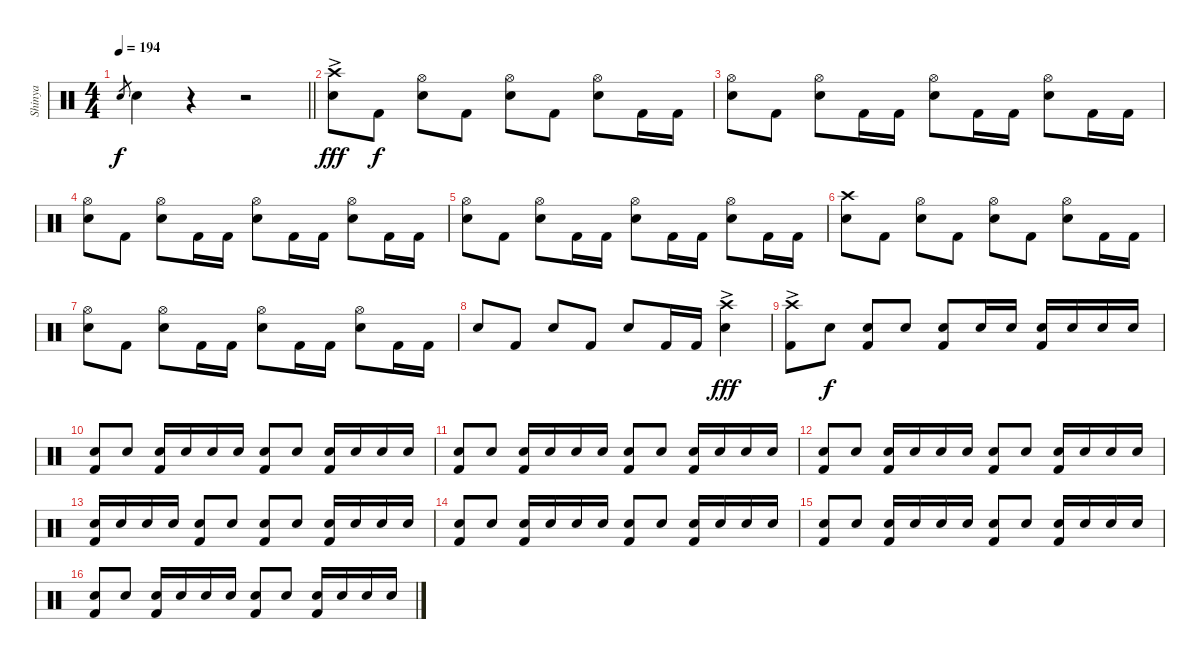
\track ("Shinya" "Shinya") {instrument percussion}
\staff {score}
\articulation defaults
\ts (4 4)
\tempo 194
\clef neutral
\barLineRight lightlight
\ks c "Snare (hit) 2".8{gr dy f} "Snare (hit) 2".4
r.4 r.2 |
("Crash high (hit)"{ac} "Snare (hit) 2").8{dy fff} "Kick (hit) 2".8{dy f} ("Hi-Hat (open)" "Snare (hit) 2").8 "Kick (hit) 2".8 ("Hi-Hat (open)" "Snare (hit) 2").8 "Kick (hit) 2".8 ("Hi-Hat (open)" "Snare (hit) 2").8 "Kick (hit) 2".16 "Kick (hit) 2".16 |
("Hi-Hat (open)" "Snare (hit) 2").8 "Kick (hit) 2".8 ("Hi-Hat (open)" "Snare (hit) 2").8 "Kick (hit) 2".16 "Kick (hit) 2".16 ("Hi-Hat (open)" "Snare (hit) 2").8 "Kick (hit) 2".16 "Kick (hit) 2".16 ("Hi-Hat (open)" "Snare (hit) 2").8 "Kick (hit) 2".16 "Kick (hit) 2".16 |
("Hi-Hat (open)" "Snare (hit) 2").8 "Kick (hit) 2".8 ("Hi-Hat (open)" "Snare (hit) 2").8 "Kick (hit) 2".16 "Kick (hit) 2".16 ("Hi-Hat (open)" "Snare (hit) 2").8 "Kick (hit) 2".16 "Kick (hit) 2".16 ("Hi-Hat (open)" "Snare (hit) 2").8 "Kick (hit) 2".16 "Kick (hit) 2".16 |
("Hi-Hat (open)" "Snare (hit) 2").8 "Kick (hit) 2".8 ("Hi-Hat (open)" "Snare (hit) 2").8 "Kick (hit) 2".16 "Kick (hit) 2".16 ("Hi-Hat (open)" "Snare (hit) 2").8 "Kick (hit) 2".16 "Kick (hit) 2".16 ("Hi-Hat (open)" "Snare (hit) 2").8 "Kick (hit) 2".16 "Kick (hit) 2".16 |
("Crash high (hit)" "Snare (hit) 2").8 "Kick (hit) 2".8 ("Hi-Hat (open)" "Snare (hit) 2").8 "Kick (hit) 2".8 ("Hi-Hat (open)" "Snare (hit) 2").8 "Kick (hit) 2".8 ("Hi-Hat (open)" "Snare (hit) 2").8 "Kick (hit) 2".16 "Kick (hit) 2".16 |
("Hi-Hat (open)" "Snare (hit) 2").8 "Kick (hit) 2".8 ("Hi-Hat (open)" "Snare (hit) 2").8 "Kick (hit) 2".16 "Kick (hit) 2".16 ("Hi-Hat (open)" "Snare (hit) 2").8 "Kick (hit) 2".16 "Kick (hit) 2".16 ("Hi-Hat (open)" "Snare (hit) 2").8 "Kick (hit) 2".16 "Kick (hit) 2".16 |
"Snare (hit) 2".8 "Kick (hit) 2".8 "Snare (hit) 2".8 "Kick (hit) 2".8 "Snare (hit) 2".8 "Kick (hit) 2".16 "Kick (hit) 2".16 ("Crash high (hit)"{ac} "Snare (hit) 2").4{dy fff} |
("Crash high (hit)"{ac} "Kick (hit) 2").8 "Snare (hit) 2".8{dy f} ("Snare (hit) 2" "Kick (hit) 2").8 "Snare (hit) 2".8 ("Kick (hit) 2" "Snare (hit) 2").8 "Snare (hit) 2".16 "Snare (hit) 2".16 ("Snare (hit) 2" "Kick (hit) 2").16 "Snare (hit) 2".16 "Snare (hit) 2".16 "Snare (hit) 2".16 |
("Snare (hit) 2" "Kick (hit) 2").8 "Snare (hit) 2".8 ("Snare (hit) 2" "Kick (hit) 2").16 "Snare (hit) 2".16 "Snare (hit) 2".16 "Snare (hit) 2".16 ("Snare (hit) 2" "Kick (hit) 2").8 "Snare (hit) 2".8 ("Snare (hit) 2" "Kick (hit) 2").16 "Snare (hit) 2".16 "Snare (hit) 2".16 "Snare (hit) 2".16 |
("Snare (hit) 2" "Kick (hit) 2").8 "Snare (hit) 2".8 ("Snare (hit) 2" "Kick (hit) 2").16 "Snare (hit) 2".16 "Snare (hit) 2".16 "Snare (hit) 2".16 ("Snare (hit) 2" "Kick (hit) 2").8 "Snare (hit) 2".8 ("Snare (hit) 2" "Kick (hit) 2").16 "Snare (hit) 2".16 "Snare (hit) 2".16 "Snare (hit) 2".16 |
("Snare (hit) 2" "Kick (hit) 2").8 "Snare (hit) 2".8 ("Snare (hit) 2" "Kick (hit) 2").16 "Snare (hit) 2".16 "Snare (hit) 2".16 "Snare (hit) 2".16 ("Snare (hit) 2" "Kick (hit) 2").8 "Snare (hit) 2".8 ("Snare (hit) 2" "Kick (hit) 2").16 "Snare (hit) 2".16 "Snare (hit) 2".16 "Snare (hit) 2".16 |
("Snare (hit) 2" "Kick (hit) 2").16 "Snare (hit) 2".16 "Snare (hit) 2".16 "Snare (hit) 2".16 ("Snare (hit) 2" "Kick (hit) 2").8 "Snare (hit) 2".8 ("Snare (hit) 2" "Kick (hit) 2").8 "Snare (hit) 2".8 ("Snare (hit) 2" "Kick (hit) 2").16 "Snare (hit) 2".16 "Snare (hit) 2".16 "Snare (hit) 2".16 |
("Snare (hit) 2" "Kick (hit) 2").8 "Snare (hit) 2".8 ("Snare (hit) 2" "Kick (hit) 2").16 "Snare (hit) 2".16 "Snare (hit) 2".16 "Snare (hit) 2".16 ("Snare (hit) 2" "Kick (hit) 2").8 "Snare (hit) 2".8 ("Snare (hit) 2" "Kick (hit) 2").16 "Snare (hit) 2".16 "Snare (hit) 2".16 "Snare (hit) 2".16 |
("Snare (hit) 2" "Kick (hit) 2").8 "Snare (hit) 2".8 ("Snare (hit) 2" "Kick (hit) 2").16 "Snare (hit) 2".16 "Snare (hit) 2".16 "Snare (hit) 2".16 ("Snare (hit) 2" "Kick (hit) 2").8 "Snare (hit) 2".8 ("Snare (hit) 2" "Kick (hit) 2").16 "Snare (hit) 2".16 "Snare (hit) 2".16 "Snare (hit) 2".16 |
("Snare (hit) 2" "Kick (hit) 2").8 "Snare (hit) 2".8 ("Snare (hit) 2" "Kick (hit) 2").16 "Snare (hit) 2".16 "Snare (hit) 2".16 "Snare (hit) 2".16 ("Snare (hit) 2" "Kick (hit) 2").8 "Snare (hit) 2".8 ("Snare (hit) 2" "Kick (hit) 2").16 "Snare (hit) 2".16 "Snare (hit) 2".16 "Snare (hit) 2".16
